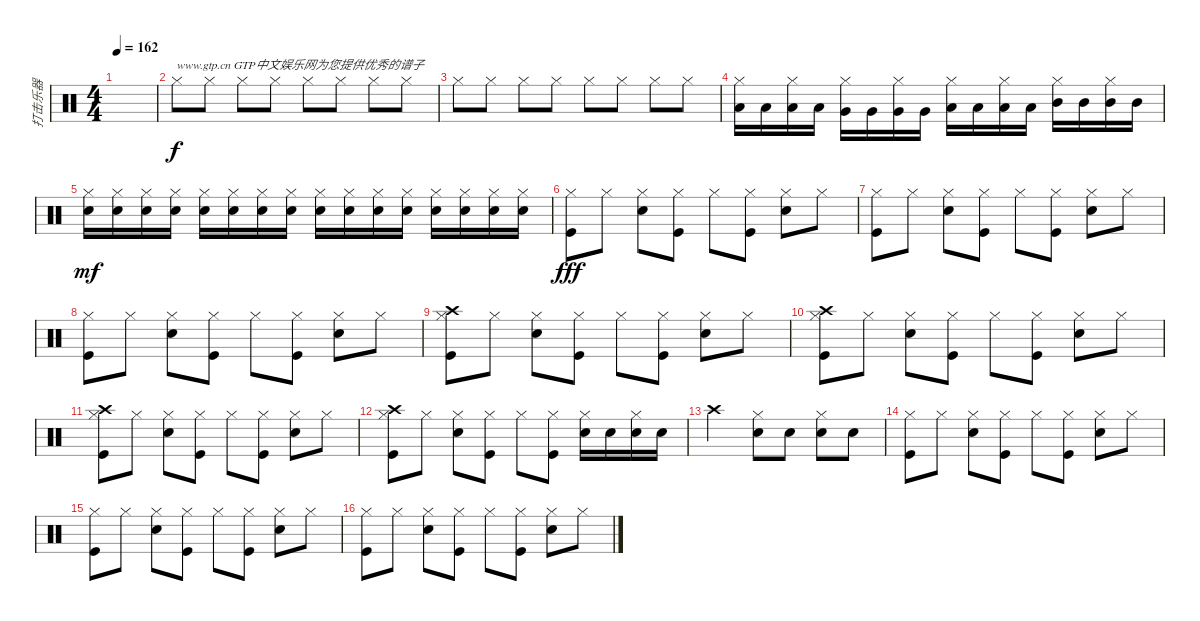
\track ("打击乐器" "打击乐器") {instrument percussion}
\staff {score}
\articulation defaults
\ts (4 4)
\tempo 162
\clef neutral
\ks c
|
"Hi-Hat (closed)".8{txt "www.gtp.cn GTP中文娱乐网为您提供优秀的谱子"} "Hi-Hat (closed)".8 "Hi-Hat (closed)".8 "Hi-Hat (closed)".8 "Hi-Hat (closed)".8 "Hi-Hat (closed)".8 "Hi-Hat (closed)".8 "Hi-Hat (closed)".8 |
"Hi-Hat (closed)".8 "Hi-Hat (closed)".8 "Hi-Hat (closed)".8 "Hi-Hat (closed)".8 "Hi-Hat (closed)".8 "Hi-Hat (closed)".8 "Hi-Hat (closed)".8 "Hi-Hat (closed)".8 |
("Hi-Hat (closed)" "Low Floor Tom (hit)").16 "Low Floor Tom (hit)".16 ("Hi-Hat (closed)" "Low Floor Tom (hit)").16 "Low Floor Tom (hit)".16 ("Hi-Hat (closed)" "Very Low Tom (hit)").16 "Very Low Tom (hit)".16 ("Hi-Hat (closed)" "Very Low Tom (hit)").16 "Very Low Tom (hit)".16 ("Hi-Hat (closed)" "Low Tom (hit)").16 "Low Tom (hit)".16 ("Hi-Hat (closed)" "Low Tom (hit)").16 "Low Tom (hit)".16 ("Hi-Hat (closed)" "Mid Tom (hit)").16 "Mid Tom (hit)".16 ("Hi-Hat (closed)" "Mid Tom (hit)").16 "Mid Tom (hit)".16 |
("Hi-Hat (closed)" "Snare (hit) 2").16{dy mf} ("Hi-Hat (closed)" "Snare (hit) 2").16 ("Hi-Hat (closed)" "Snare (hit) 2").16 ("Snare (hit) 2" "Hi-Hat (closed)").16 ("Snare (hit) 2" "Hi-Hat (closed)").16 ("Snare (hit) 2" "Hi-Hat (closed)").16 ("Snare (hit) 2" "Hi-Hat (closed)").16 ("Snare (hit) 2" "Hi-Hat (closed)").16 ("Snare (hit) 2" "Hi-Hat (closed)").16 ("Snare (hit) 2" "Hi-Hat (closed)").16 ("Snare (hit) 2" "Hi-Hat (closed)").16 ("Snare (hit) 2" "Hi-Hat (closed)").16 ("Snare (hit) 2" "Hi-Hat (closed)").16 ("Snare (hit) 2" "Hi-Hat (closed)").16 ("Snare (hit) 2" "Hi-Hat (closed)").16 ("Snare (hit) 2" "Hi-Hat (closed)").16 |
("Hi-Hat (closed)" "Kick (hit)").8{dy fff} "Hi-Hat (closed)".8 ("Hi-Hat (closed)" "Snare (hit) 2").8 ("Hi-Hat (closed)" "Kick (hit)").8 "Hi-Hat (closed)".8 ("Hi-Hat (closed)" "Kick (hit)").8 ("Hi-Hat (closed)" "Snare (hit) 2").8 "Hi-Hat (closed)".8 |
("Hi-Hat (closed)" "Kick (hit)").8 "Hi-Hat (closed)".8 ("Hi-Hat (closed)" "Snare (hit) 2").8 ("Hi-Hat (closed)" "Kick (hit)").8 "Hi-Hat (closed)".8 ("Hi-Hat (closed)" "Kick (hit)").8 ("Hi-Hat (closed)" "Snare (hit) 2").8 "Hi-Hat (closed)".8 |
("Hi-Hat (closed)" "Kick (hit)").8 "Hi-Hat (closed)".8 ("Hi-Hat (closed)" "Snare (hit) 2").8 ("Hi-Hat (closed)" "Kick (hit)").8 "Hi-Hat (closed)".8 ("Hi-Hat (closed)" "Kick (hit)").8 ("Hi-Hat (closed)" "Snare (hit) 2").8 "Hi-Hat (closed)".8 |
("Hi-Hat (closed)" "Kick (hit)" "Crash high (hit)").8 "Hi-Hat (closed)".8 ("Hi-Hat (closed)" "Snare (hit) 2").8 ("Hi-Hat (closed)" "Kick (hit)").8 "Hi-Hat (closed)".8 ("Hi-Hat (closed)" "Kick (hit)").8 ("Hi-Hat (closed)" "Snare (hit) 2").8 "Hi-Hat (closed)".8 |
("Hi-Hat (closed)" "Kick (hit)" "Crash high (hit)").8 "Hi-Hat (closed)".8 ("Hi-Hat (closed)" "Snare (hit) 2").8 ("Hi-Hat (closed)" "Kick (hit)").8 "Hi-Hat (closed)".8 ("Hi-Hat (closed)" "Kick (hit)").8 ("Hi-Hat (closed)" "Snare (hit) 2").8 "Hi-Hat (closed)".8 |
("Hi-Hat (closed)" "Kick (hit)" "Crash high (hit)").8 "Hi-Hat (closed)".8 ("Hi-Hat (closed)" "Snare (hit) 2").8 ("Hi-Hat (closed)" "Kick (hit)").8 "Hi-Hat (closed)".8 ("Hi-Hat (closed)" "Kick (hit)").8 ("Hi-Hat (closed)" "Snare (hit) 2").8 "Hi-Hat (closed)".8 |
("Crash high (hit)" "Hi-Hat (closed)" "Kick (hit)").8 "Hi-Hat (closed)".8 ("Hi-Hat (closed)" "Snare (hit) 2").8 ("Hi-Hat (closed)" "Kick (hit)").8 "Hi-Hat (closed)".8 ("Hi-Hat (closed)" "Kick (hit)").8 ("Hi-Hat (closed)" "Snare (hit) 2").16 "Snare (hit) 2".16 ("Hi-Hat (closed)" "Snare (hit) 2").16 "Snare (hit) 2".16 |
"Crash high (hit)".2 ("Hi-Hat (closed)" "Snare (hit) 2").8 "Snare (hit) 2".8 ("Hi-Hat (closed)" "Snare (hit) 2").8 "Snare (hit) 2".8 |
("Hi-Hat (closed)" "Kick (hit)").8 "Hi-Hat (closed)".8 ("Hi-Hat (closed)" "Snare (hit) 2").8 ("Hi-Hat (closed)" "Kick (hit)").8 "Hi-Hat (closed)".8 ("Hi-Hat (closed)" "Kick (hit)").8 ("Hi-Hat (closed)" "Snare (hit) 2").8 "Hi-Hat (closed)".8 |
("Hi-Hat (closed)" "Kick (hit)").8 "Hi-Hat (closed)".8 ("Hi-Hat (closed)" "Snare (hit) 2").8 ("Hi-Hat (closed)" "Kick (hit)").8 "Hi-Hat (closed)".8 ("Hi-Hat (closed)" "Kick (hit)").8 ("Hi-Hat (closed)" "Snare (hit) 2").8 "Hi-Hat (closed)".8 |
("Hi-Hat (closed)" "Kick (hit)").8 "Hi-Hat (closed)".8 ("Hi-Hat (closed)" "Snare (hit) 2").8 ("Hi-Hat (closed)" "Kick (hit)").8 "Hi-Hat (closed)".8 ("Hi-Hat (closed)" "Kick (hit)").8 ("Hi-Hat (closed)" "Snare (hit) 2").8 "Hi-Hat (closed)".8
